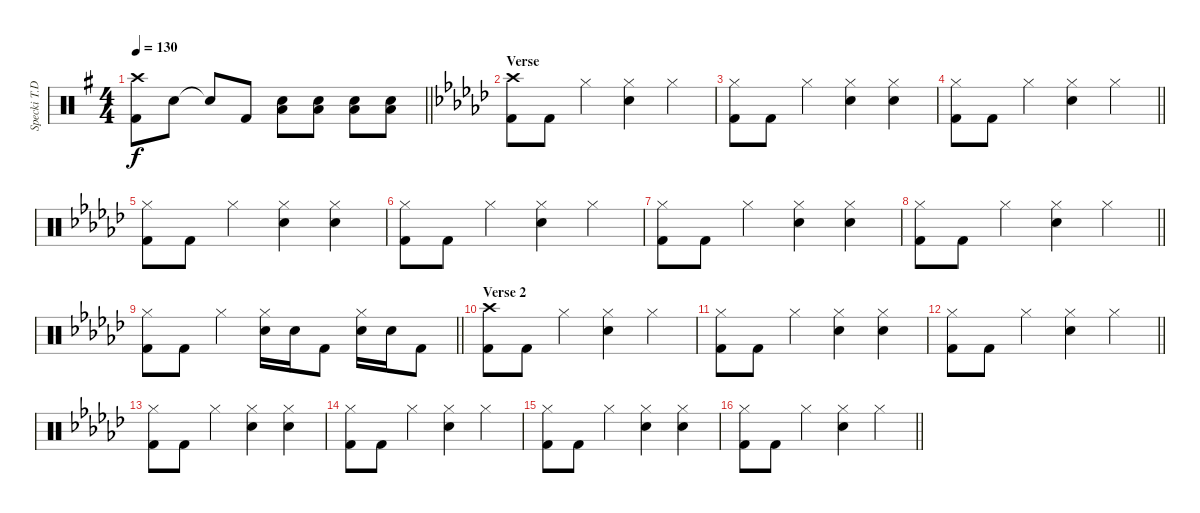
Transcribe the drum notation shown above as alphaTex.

\track ("Specki T.D. (Drums)" "Specki T.D") {instrument percussion}
\staff {score}
\articulation defaults
\ts (4 4)
\tempo 130
\clef neutral
\barLineRight lightlight
\ks eminor
("Crash high (hit)" "Kick (hit) 2").8{dy f} "Snare (hit) 2".8 "Snare (hit)"{t}.8 "Kick (hit) 2".8 ("Snare (hit) 2" "Low Tom (hit)").8 ("Snare (hit) 2" "Low Tom (hit)").8 ("Snare (hit) 2" "Low Floor Tom (hit)").8 ("Snare (hit) 2" "Low Floor Tom (hit)").8 |
\section ("" "Verse")
\ks ebminor
("Crash high (hit)" "Kick (hit) 2").8 "Kick (hit) 2".8 "Hi-Hat (closed)".4 ("Hi-Hat (closed)" "Snare (hit) 2").4 "Hi-Hat (closed)".4 |
("Hi-Hat (closed)" "Kick (hit) 2").8 "Kick (hit) 2".8 "Hi-Hat (closed)".4 ("Hi-Hat (closed)" "Snare (hit) 2").4 ("Hi-Hat (closed)" "Snare (hit) 2").4 |
\barLineRight lightlight
("Hi-Hat (closed)" "Kick (hit) 2").8 "Kick (hit) 2".8 "Hi-Hat (closed)".4 ("Hi-Hat (closed)" "Snare (hit) 2").4 "Hi-Hat (closed)".4 |
\section ("" "")
("Hi-Hat (closed)" "Kick (hit) 2").8 "Kick (hit) 2".8 "Hi-Hat (closed)".4 ("Hi-Hat (closed)" "Snare (hit) 2").4 ("Hi-Hat (closed)" "Snare (hit) 2").4 |
("Hi-Hat (closed)" "Kick (hit) 2").8 "Kick (hit) 2".8 "Hi-Hat (closed)".4 ("Hi-Hat (closed)" "Snare (hit) 2").4 "Hi-Hat (closed)".4 |
("Hi-Hat (closed)" "Kick (hit) 2").8 "Kick (hit) 2".8 "Hi-Hat (closed)".4 ("Hi-Hat (closed)" "Snare (hit) 2").4 ("Hi-Hat (closed)" "Snare (hit) 2").4 |
\barLineRight lightlight
("Hi-Hat (closed)" "Kick (hit) 2").8 "Kick (hit) 2".8 "Hi-Hat (closed)".4 ("Hi-Hat (closed)" "Snare (hit) 2").4 "Hi-Hat (closed)".4 |
\barLineRight lightlight
("Hi-Hat (closed)" "Kick (hit) 2").8 "Kick (hit) 2".8 "Hi-Hat (closed)".4 ("Hi-Hat (closed)" "Snare (hit) 2").16 "Snare (hit) 2".16 "Kick (hit) 2".8 ("Hi-Hat (closed)" "Snare (hit) 2").16 "Snare (hit) 2".16 "Kick (hit) 2".8 |
\section ("" "Verse 2")
("Crash high (hit)" "Kick (hit) 2").8 "Kick (hit) 2".8 "Hi-Hat (closed)".4 ("Hi-Hat (closed)" "Snare (hit) 2").4 "Hi-Hat (closed)".4 |
("Hi-Hat (closed)" "Kick (hit) 2").8 "Kick (hit) 2".8 "Hi-Hat (closed)".4 ("Hi-Hat (closed)" "Snare (hit) 2").4 ("Hi-Hat (closed)" "Snare (hit) 2").4 |
\barLineRight lightlight
("Hi-Hat (closed)" "Kick (hit) 2").8 "Kick (hit) 2".8 "Hi-Hat (closed)".4 ("Hi-Hat (closed)" "Snare (hit) 2").4 "Hi-Hat (closed)".4 |
("Hi-Hat (closed)" "Kick (hit) 2").8 "Kick (hit) 2".8 "Hi-Hat (closed)".4 ("Hi-Hat (closed)" "Snare (hit) 2").4 ("Hi-Hat (closed)" "Snare (hit) 2").4 |
("Hi-Hat (closed)" "Kick (hit) 2").8 "Kick (hit) 2".8 "Hi-Hat (closed)".4 ("Hi-Hat (closed)" "Snare (hit) 2").4 "Hi-Hat (closed)".4 |
("Hi-Hat (closed)" "Kick (hit) 2").8 "Kick (hit) 2".8 "Hi-Hat (closed)".4 ("Hi-Hat (closed)" "Snare (hit) 2").4 ("Hi-Hat (closed)" "Snare (hit) 2").4 |
\barLineRight lightlight
("Hi-Hat (closed)" "Kick (hit) 2").8 "Kick (hit) 2".8 "Hi-Hat (closed)".4 ("Hi-Hat (closed)" "Snare (hit) 2").4 "Hi-Hat (closed)".4
